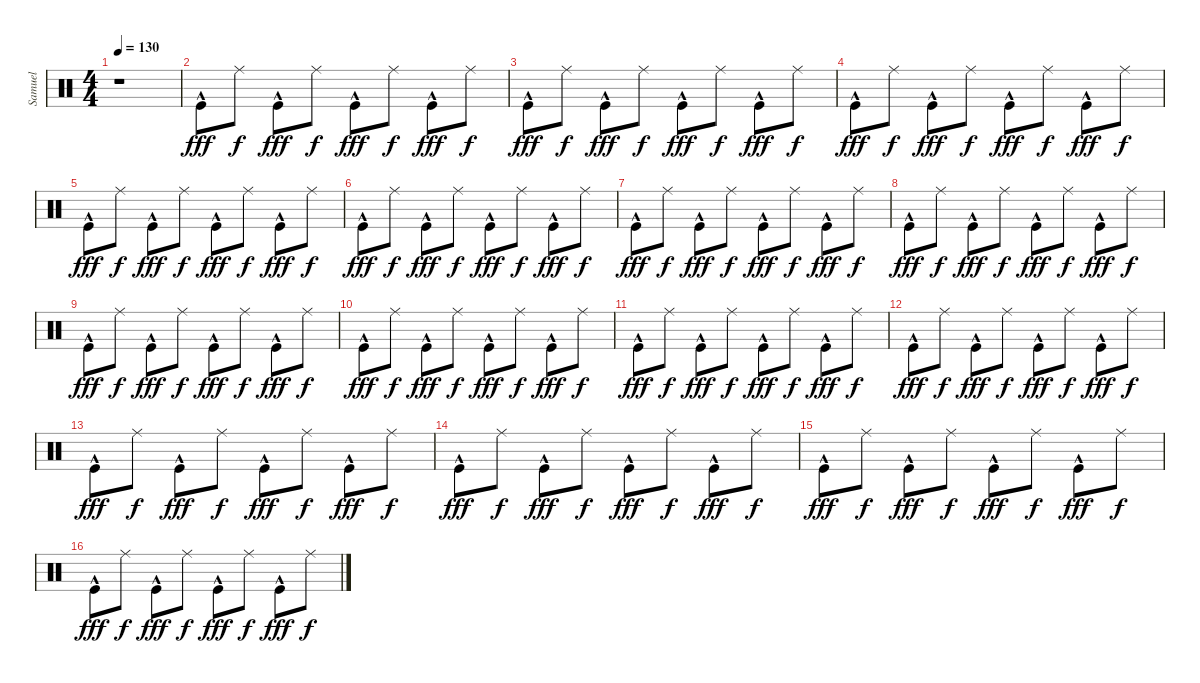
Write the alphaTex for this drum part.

\track ("Samuel" "Samuel") {instrument percussion}
\staff {score}
\articulation defaults
\ts (4 4)
\tempo 130
\clef neutral
\ks c
r.1{dy fff} |
"Kick (hit)"{hac}.8 "Ride (middle)".8{dy f} "Kick (hit)"{hac}.8{dy fff} "Ride (middle)".8{dy f} "Kick (hit)"{hac}.8{dy fff} "Ride (middle)".8{dy f} "Kick (hit)"{hac}.8{dy fff} "Ride (middle)".8{dy f} |
"Kick (hit)"{hac}.8{dy fff} "Ride (middle)".8{dy f} "Kick (hit)"{hac}.8{dy fff} "Ride (middle)".8{dy f} "Kick (hit)"{hac}.8{dy fff} "Ride (middle)".8{dy f} "Kick (hit)"{hac}.8{dy fff} "Ride (middle)".8{dy f} |
"Kick (hit)"{hac}.8{dy fff} "Ride (middle)".8{dy f} "Kick (hit)"{hac}.8{dy fff} "Ride (middle)".8{dy f} "Kick (hit)"{hac}.8{dy fff} "Ride (middle)".8{dy f} "Kick (hit)"{hac}.8{dy fff} "Ride (middle)".8{dy f} |
"Kick (hit)"{hac}.8{dy fff} "Ride (middle)".8{dy f} "Kick (hit)"{hac}.8{dy fff} "Ride (middle)".8{dy f} "Kick (hit)"{hac}.8{dy fff} "Ride (middle)".8{dy f} "Kick (hit)"{hac}.8{dy fff} "Ride (middle)".8{dy f} |
"Kick (hit)"{hac}.8{dy fff} "Ride (middle)".8{dy f} "Kick (hit)"{hac}.8{dy fff} "Ride (middle)".8{dy f} "Kick (hit)"{hac}.8{dy fff} "Ride (middle)".8{dy f} "Kick (hit)"{hac}.8{dy fff} "Ride (middle)".8{dy f} |
"Kick (hit)"{hac}.8{dy fff} "Ride (middle)".8{dy f} "Kick (hit)"{hac}.8{dy fff} "Ride (middle)".8{dy f} "Kick (hit)"{hac}.8{dy fff} "Ride (middle)".8{dy f} "Kick (hit)"{hac}.8{dy fff} "Ride (middle)".8{dy f} |
"Kick (hit)"{hac}.8{dy fff} "Ride (middle)".8{dy f} "Kick (hit)"{hac}.8{dy fff} "Ride (middle)".8{dy f} "Kick (hit)"{hac}.8{dy fff} "Ride (middle)".8{dy f} "Kick (hit)"{hac}.8{dy fff} "Ride (middle)".8{dy f} |
"Kick (hit)"{hac}.8{dy fff} "Ride (middle)".8{dy f} "Kick (hit)"{hac}.8{dy fff} "Ride (middle)".8{dy f} "Kick (hit)"{hac}.8{dy fff} "Ride (middle)".8{dy f} "Kick (hit)"{hac}.8{dy fff} "Ride (middle)".8{dy f} |
"Kick (hit)"{hac}.8{dy fff} "Ride (middle)".8{dy f} "Kick (hit)"{hac}.8{dy fff} "Ride (middle)".8{dy f} "Kick (hit)"{hac}.8{dy fff} "Ride (middle)".8{dy f} "Kick (hit)"{hac}.8{dy fff} "Ride (middle)".8{dy f} |
"Kick (hit)"{hac}.8{dy fff} "Ride (middle)".8{dy f} "Kick (hit)"{hac}.8{dy fff} "Ride (middle)".8{dy f} "Kick (hit)"{hac}.8{dy fff} "Ride (middle)".8{dy f} "Kick (hit)"{hac}.8{dy fff} "Ride (middle)".8{dy f} |
"Kick (hit)"{hac}.8{dy fff} "Ride (middle)".8{dy f} "Kick (hit)"{hac}.8{dy fff} "Ride (middle)".8{dy f} "Kick (hit)"{hac}.8{dy fff} "Ride (middle)".8{dy f} "Kick (hit)"{hac}.8{dy fff} "Ride (middle)".8{dy f} |
"Kick (hit)"{hac}.8{dy fff} "Ride (middle)".8{dy f} "Kick (hit)"{hac}.8{dy fff} "Ride (middle)".8{dy f} "Kick (hit)"{hac}.8{dy fff} "Ride (middle)".8{dy f} "Kick (hit)"{hac}.8{dy fff} "Ride (middle)".8{dy f} |
"Kick (hit)"{hac}.8{dy fff} "Ride (middle)".8{dy f} "Kick (hit)"{hac}.8{dy fff} "Ride (middle)".8{dy f} "Kick (hit)"{hac}.8{dy fff} "Ride (middle)".8{dy f} "Kick (hit)"{hac}.8{dy fff} "Ride (middle)".8{dy f} |
"Kick (hit)"{hac}.8{dy fff} "Ride (middle)".8{dy f} "Kick (hit)"{hac}.8{dy fff} "Ride (middle)".8{dy f} "Kick (hit)"{hac}.8{dy fff} "Ride (middle)".8{dy f} "Kick (hit)"{hac}.8{dy fff} "Ride (middle)".8{dy f} |
"Kick (hit)"{hac}.8{dy fff} "Ride (middle)".8{dy f} "Kick (hit)"{hac}.8{dy fff} "Ride (middle)".8{dy f} "Kick (hit)"{hac}.8{dy fff} "Ride (middle)".8{dy f} "Kick (hit)"{hac}.8{dy fff} "Ride (middle)".8{dy f}
